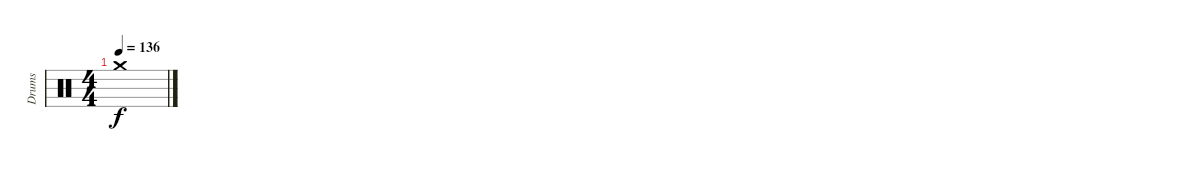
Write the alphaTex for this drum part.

\track ("Drums" "Drums") {instrument percussion}
\staff {score}
\articulation defaults
\ts (4 4)
\tempo 136
\clef neutral
\ks c "Crash medium (hit)".1{dy f}
